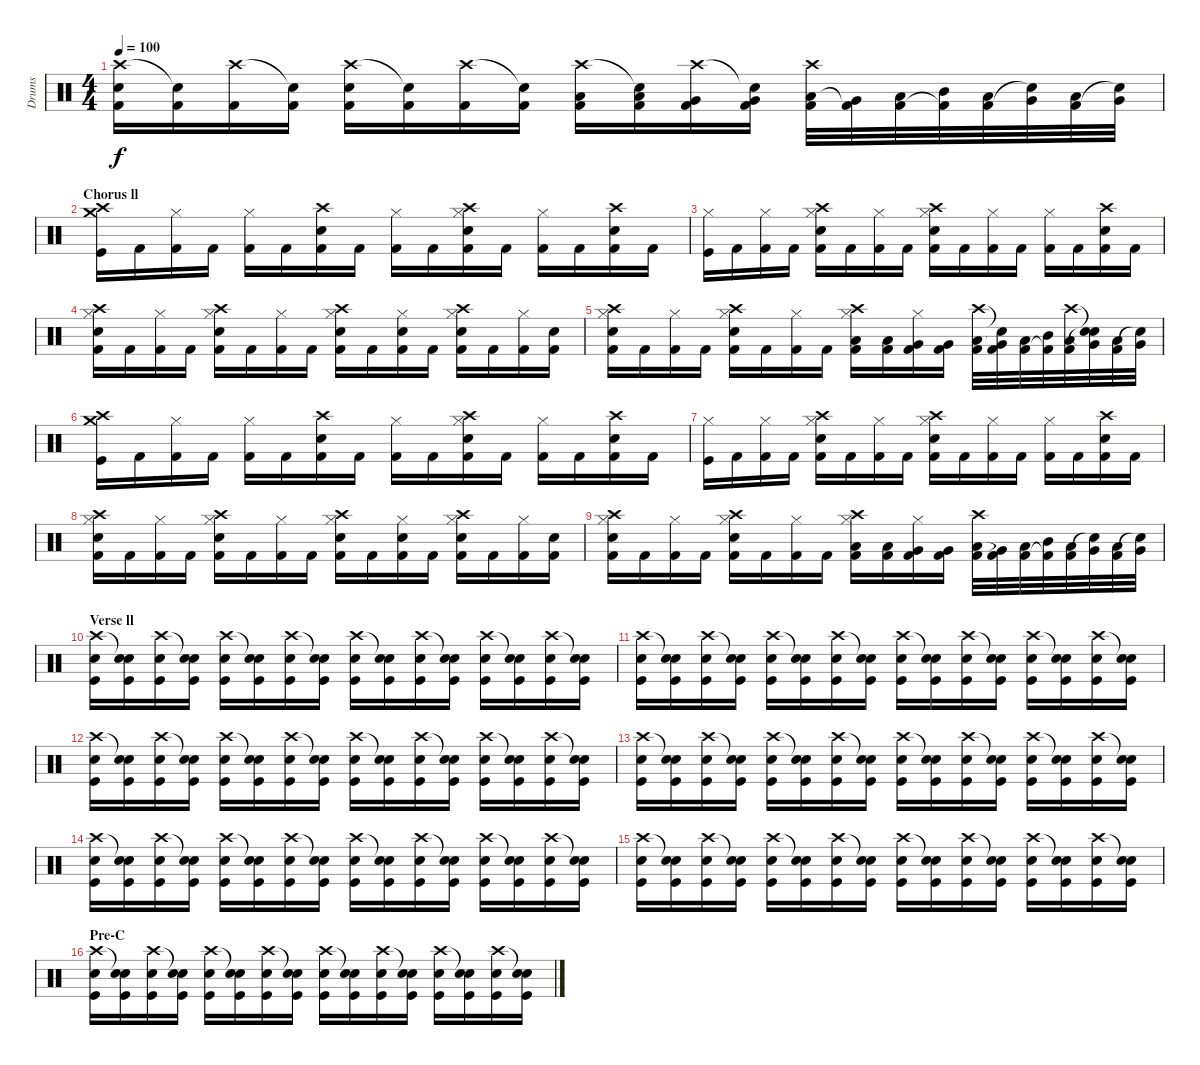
\track ("Drums" "Drums") {instrument percussion}
\staff {score}
\articulation defaults
\ts (4 4)
\tempo 100
\clef neutral
\ks c
("Crash high (hit)" "Electric Snare (hit)" "Kick (hit) 2").16{dy f} ("Snare (hit)"{t} "Kick (hit) 2").16 ("Crash high (hit)" "Kick (hit) 2").16 ("Snare (hit)"{t} "Kick (hit) 2").16 ("Crash high (hit)" "Electric Snare (hit)" "Kick (hit) 2").16 ("Snare (hit)"{t} "Kick (hit) 2").16 ("Crash high (hit)" "Kick (hit) 2").16 ("Snare (hit)"{t} "Kick (hit) 2").16 ("Crash high (hit)" "Low Floor Tom (hit)" "Kick (hit) 2").16 ("Snare (hit)"{t} "Low Floor Tom (hit)" "Kick (hit) 2").16 ("Crash high (hit)" "Very Low Tom (hit)" "Kick (hit) 2").16 ("Snare (hit)"{t} "Very Low Tom (hit)" "Kick (hit) 2").16 ("Crash high (hit)" "Low Floor Tom (hit)" "Kick (hit) 2").32 ("Very Low Tom (hit)" "Kick (hit) 2"{t}).32 ("Low Tom (hit)" "Kick (hit) 2").32 ("Mid Tom (hit)" "Kick (hit) 2"{t}).32 ("Low Tom (hit)" "Kick (hit) 2").32 ("Very Low Tom (hit)" "Snare (hit)"{t}).32 ("Low Floor Tom (hit)" "Kick (hit) 2").32 ("Very Low Tom (hit)" "Snare (hit)"{t}).32 |
\section ("" "Chorus ll")
("Crash medium (hit)" "Crash high (hit)" "Kick (hit)").16 "Kick (hit) 2".16 ("Hi-Hat (closed)" "Kick (hit) 2").16 "Kick (hit) 2".16 ("Hi-Hat (closed)" "Kick (hit) 2").16 "Kick (hit) 2".16 ("Crash high (hit)" "Electric Snare (hit)" "Kick (hit) 2").16 "Kick (hit) 2".16 ("Hi-Hat (closed)" "Kick (hit) 2").16 "Kick (hit) 2".16 ("Hi-Hat (closed)" "Crash high (hit)" "Electric Snare (hit)" "Kick (hit) 2").16 "Kick (hit) 2".16 ("Hi-Hat (closed)" "Kick (hit) 2").16 "Kick (hit) 2".16 ("Crash high (hit)" "Electric Snare (hit)" "Kick (hit) 2").16 "Kick (hit) 2".16 |
("Hi-Hat (closed)" "Kick (hit)").16 "Kick (hit) 2".16 ("Hi-Hat (closed)" "Kick (hit) 2").16 "Kick (hit) 2".16 ("Hi-Hat (closed)" "Crash high (hit)" "Electric Snare (hit)" "Kick (hit) 2").16 "Kick (hit) 2".16 ("Hi-Hat (closed)" "Kick (hit) 2").16 "Kick (hit) 2".16 ("Hi-Hat (closed)" "Crash high (hit)" "Electric Snare (hit)" "Kick (hit) 2").16 "Kick (hit) 2".16 ("Hi-Hat (closed)" "Kick (hit) 2").16 "Kick (hit) 2".16 ("Hi-Hat (closed)" "Kick (hit) 2").16 "Kick (hit) 2".16 ("Crash high (hit)" "Electric Snare (hit)" "Kick (hit) 2").16 "Kick (hit) 2".16 |
("Hi-Hat (closed)" "Crash high (hit)" "Electric Snare (hit)" "Kick (hit) 2").16 "Kick (hit) 2".16 ("Hi-Hat (closed)" "Kick (hit) 2").16 "Kick (hit) 2".16 ("Hi-Hat (closed)" "Crash high (hit)" "Electric Snare (hit)" "Kick (hit) 2").16 "Kick (hit) 2".16 ("Hi-Hat (closed)" "Kick (hit) 2").16 "Kick (hit) 2".16 ("Hi-Hat (closed)" "Crash high (hit)" "Electric Snare (hit)" "Kick (hit) 2").16 "Kick (hit) 2".16 ("Hi-Hat (closed)" "Electric Snare (hit)" "Kick (hit) 2").16 "Kick (hit) 2".16 ("Hi-Hat (closed)" "Crash high (hit)" "Electric Snare (hit)" "Kick (hit) 2").16 "Kick (hit) 2".16 ("Hi-Hat (closed)" "Kick (hit) 2").16 ("Electric Snare (hit)" "Kick (hit) 2").16 |
("Hi-Hat (closed)" "Crash high (hit)" "Electric Snare (hit)" "Kick (hit) 2").16 "Kick (hit) 2".16 ("Hi-Hat (closed)" "Kick (hit) 2").16 "Kick (hit) 2".16 ("Hi-Hat (closed)" "Crash high (hit)" "Electric Snare (hit)" "Kick (hit) 2").16 "Kick (hit) 2".16 ("Hi-Hat (closed)" "Kick (hit) 2").16 "Kick (hit) 2".16 ("Hi-Hat (closed)" "Crash high (hit)" "Low Floor Tom (hit)" "Kick (hit) 2").16 ("Low Floor Tom (hit)" "Kick (hit) 2").16 ("Hi-Hat (closed)" "Very Low Tom (hit)" "Kick (hit) 2").16 ("Very Low Tom (hit)" "Kick (hit) 2").16 ("Crash high (hit)" "Low Floor Tom (hit)" "Kick (hit) 2").32 ("Snare (hit)"{t} "Very Low Tom (hit)" "Kick (hit) 2"{t}).32 ("Low Tom (hit)" "Kick (hit) 2").32 ("Mid Tom (hit)" "Kick (hit) 2"{t}).32 ("Crash high (hit)" "Low Tom (hit)" "Kick (hit) 2").32 ("Snare (hit)"{t} "Very Low Tom (hit)" "Snare (hit)"{t}).32 ("Low Floor Tom (hit)" "Kick (hit) 2").32 ("Very Low Tom (hit)" "Snare (hit)"{t}).32 |
("Crash medium (hit)" "Crash high (hit)" "Kick (hit)").16 "Kick (hit) 2".16 ("Hi-Hat (closed)" "Kick (hit) 2").16 "Kick (hit) 2".16 ("Hi-Hat (closed)" "Kick (hit) 2").16 "Kick (hit) 2".16 ("Crash high (hit)" "Electric Snare (hit)" "Kick (hit) 2").16 "Kick (hit) 2".16 ("Hi-Hat (closed)" "Kick (hit) 2").16 "Kick (hit) 2".16 ("Hi-Hat (closed)" "Crash high (hit)" "Electric Snare (hit)" "Kick (hit) 2").16 "Kick (hit) 2".16 ("Hi-Hat (closed)" "Kick (hit) 2").16 "Kick (hit) 2".16 ("Crash high (hit)" "Electric Snare (hit)" "Kick (hit) 2").16 "Kick (hit) 2".16 |
("Hi-Hat (closed)" "Kick (hit)").16 "Kick (hit) 2".16 ("Hi-Hat (closed)" "Kick (hit) 2").16 "Kick (hit) 2".16 ("Hi-Hat (closed)" "Crash high (hit)" "Electric Snare (hit)" "Kick (hit) 2").16 "Kick (hit) 2".16 ("Hi-Hat (closed)" "Kick (hit) 2").16 "Kick (hit) 2".16 ("Hi-Hat (closed)" "Crash high (hit)" "Electric Snare (hit)" "Kick (hit) 2").16 "Kick (hit) 2".16 ("Hi-Hat (closed)" "Kick (hit) 2").16 "Kick (hit) 2".16 ("Hi-Hat (closed)" "Kick (hit) 2").16 "Kick (hit) 2".16 ("Crash high (hit)" "Electric Snare (hit)" "Kick (hit) 2").16 "Kick (hit) 2".16 |
("Hi-Hat (closed)" "Crash high (hit)" "Electric Snare (hit)" "Kick (hit) 2").16 "Kick (hit) 2".16 ("Hi-Hat (closed)" "Kick (hit) 2").16 "Kick (hit) 2".16 ("Hi-Hat (closed)" "Crash high (hit)" "Electric Snare (hit)" "Kick (hit) 2").16 "Kick (hit) 2".16 ("Hi-Hat (closed)" "Kick (hit) 2").16 "Kick (hit) 2".16 ("Hi-Hat (closed)" "Crash high (hit)" "Electric Snare (hit)" "Kick (hit) 2").16 "Kick (hit) 2".16 ("Hi-Hat (closed)" "Electric Snare (hit)" "Kick (hit) 2").16 "Kick (hit) 2".16 ("Hi-Hat (closed)" "Crash high (hit)" "Electric Snare (hit)" "Kick (hit) 2").16 "Kick (hit) 2".16 ("Hi-Hat (closed)" "Kick (hit) 2").16 ("Electric Snare (hit)" "Kick (hit) 2").16 |
("Hi-Hat (closed)" "Crash high (hit)" "Electric Snare (hit)" "Kick (hit) 2").16 "Kick (hit) 2".16 ("Hi-Hat (closed)" "Kick (hit) 2").16 "Kick (hit) 2".16 ("Hi-Hat (closed)" "Crash high (hit)" "Electric Snare (hit)" "Kick (hit) 2").16 "Kick (hit) 2".16 ("Hi-Hat (closed)" "Kick (hit) 2").16 "Kick (hit) 2".16 ("Hi-Hat (closed)" "Crash high (hit)" "Low Floor Tom (hit)" "Kick (hit) 2").16 ("Low Floor Tom (hit)" "Kick (hit) 2").16 ("Hi-Hat (closed)" "Very Low Tom (hit)" "Kick (hit) 2").16 ("Very Low Tom (hit)" "Kick (hit) 2").16 ("Crash high (hit)" "Low Floor Tom (hit)" "Kick (hit) 2").32 ("Very Low Tom (hit)" "Kick (hit) 2"{t}).32 ("Low Tom (hit)" "Kick (hit) 2").32 ("Mid Tom (hit)" "Kick (hit) 2"{t}).32 ("Low Tom (hit)" "Kick (hit) 2").32 ("Very Low Tom (hit)" "Snare (hit)"{t}).32 ("Low Floor Tom (hit)" "Kick (hit) 2").32 ("Very Low Tom (hit)" "Snare (hit)"{t}).32 |
\section ("" "Verse ll")
("Crash high (hit)" "Electric Snare (hit)" "Kick (hit)").16 ("Snare (hit)"{t} "Electric Snare (hit)" "Kick (hit)").16 ("Crash high (hit)" "Electric Snare (hit)" "Kick (hit)").16 ("Snare (hit)"{t} "Electric Snare (hit)" "Kick (hit)").16 ("Crash high (hit)" "Electric Snare (hit)" "Kick (hit)").16 ("Snare (hit)"{t} "Electric Snare (hit)" "Kick (hit)").16 ("Crash high (hit)" "Electric Snare (hit)" "Kick (hit)").16 ("Snare (hit)"{t} "Electric Snare (hit)" "Kick (hit)").16 ("Crash high (hit)" "Electric Snare (hit)" "Kick (hit)").16 ("Snare (hit)"{t} "Electric Snare (hit)" "Kick (hit)").16 ("Crash high (hit)" "Electric Snare (hit)" "Kick (hit)").16 ("Snare (hit)"{t} "Electric Snare (hit)" "Kick (hit)").16 ("Crash high (hit)" "Electric Snare (hit)" "Kick (hit)").16 ("Snare (hit)"{t} "Electric Snare (hit)" "Kick (hit)").16 ("Crash high (hit)" "Electric Snare (hit)" "Kick (hit)").16 ("Snare (hit)"{t} "Electric Snare (hit)" "Kick (hit)").16 |
("Crash high (hit)" "Electric Snare (hit)" "Kick (hit)").16 ("Snare (hit)"{t} "Electric Snare (hit)" "Kick (hit)").16 ("Crash high (hit)" "Electric Snare (hit)" "Kick (hit)").16 ("Snare (hit)"{t} "Electric Snare (hit)" "Kick (hit)").16 ("Crash high (hit)" "Electric Snare (hit)" "Kick (hit)").16 ("Snare (hit)"{t} "Electric Snare (hit)" "Kick (hit)").16 ("Crash high (hit)" "Electric Snare (hit)" "Kick (hit)").16 ("Snare (hit)"{t} "Electric Snare (hit)" "Kick (hit)").16 ("Crash high (hit)" "Electric Snare (hit)" "Kick (hit)").16 ("Snare (hit)"{t} "Electric Snare (hit)" "Kick (hit)").16 ("Crash high (hit)" "Electric Snare (hit)" "Kick (hit)").16 ("Snare (hit)"{t} "Electric Snare (hit)" "Kick (hit)").16 ("Crash high (hit)" "Electric Snare (hit)" "Kick (hit)").16 ("Snare (hit)"{t} "Electric Snare (hit)" "Kick (hit)").16 ("Crash high (hit)" "Electric Snare (hit)" "Kick (hit)").16 ("Snare (hit)"{t} "Electric Snare (hit)" "Kick (hit)").16 |
("Crash high (hit)" "Electric Snare (hit)" "Kick (hit)").16 ("Snare (hit)"{t} "Electric Snare (hit)" "Kick (hit)").16 ("Crash high (hit)" "Electric Snare (hit)" "Kick (hit)").16 ("Snare (hit)"{t} "Electric Snare (hit)" "Kick (hit)").16 ("Crash high (hit)" "Electric Snare (hit)" "Kick (hit)").16 ("Snare (hit)"{t} "Electric Snare (hit)" "Kick (hit)").16 ("Crash high (hit)" "Electric Snare (hit)" "Kick (hit)").16 ("Snare (hit)"{t} "Electric Snare (hit)" "Kick (hit)").16 ("Crash high (hit)" "Electric Snare (hit)" "Kick (hit)").16 ("Snare (hit)"{t} "Electric Snare (hit)" "Kick (hit)").16 ("Crash high (hit)" "Electric Snare (hit)" "Kick (hit)").16 ("Snare (hit)"{t} "Electric Snare (hit)" "Kick (hit)").16 ("Crash high (hit)" "Electric Snare (hit)" "Kick (hit)").16 ("Snare (hit)"{t} "Electric Snare (hit)" "Kick (hit)").16 ("Crash high (hit)" "Electric Snare (hit)" "Kick (hit)").16 ("Snare (hit)"{t} "Electric Snare (hit)" "Kick (hit)").16 |
("Crash high (hit)" "Electric Snare (hit)" "Kick (hit)").16 ("Snare (hit)"{t} "Electric Snare (hit)" "Kick (hit)").16 ("Crash high (hit)" "Electric Snare (hit)" "Kick (hit)").16 ("Snare (hit)"{t} "Electric Snare (hit)" "Kick (hit)").16 ("Crash high (hit)" "Electric Snare (hit)" "Kick (hit)").16 ("Snare (hit)"{t} "Electric Snare (hit)" "Kick (hit)").16 ("Crash high (hit)" "Electric Snare (hit)" "Kick (hit)").16 ("Snare (hit)"{t} "Electric Snare (hit)" "Kick (hit)").16 ("Crash high (hit)" "Electric Snare (hit)" "Kick (hit)").16 ("Snare (hit)"{t} "Electric Snare (hit)" "Kick (hit)").16 ("Crash high (hit)" "Electric Snare (hit)" "Kick (hit)").16 ("Snare (hit)"{t} "Electric Snare (hit)" "Kick (hit)").16 ("Crash high (hit)" "Electric Snare (hit)" "Kick (hit)").16 ("Snare (hit)"{t} "Electric Snare (hit)" "Kick (hit)").16 ("Crash high (hit)" "Electric Snare (hit)" "Kick (hit)").16 ("Snare (hit)"{t} "Electric Snare (hit)" "Kick (hit)").16 |
("Crash high (hit)" "Electric Snare (hit)" "Kick (hit)").16 ("Snare (hit)"{t} "Electric Snare (hit)" "Kick (hit)").16 ("Crash high (hit)" "Electric Snare (hit)" "Kick (hit)").16 ("Snare (hit)"{t} "Electric Snare (hit)" "Kick (hit)").16 ("Crash high (hit)" "Electric Snare (hit)" "Kick (hit)").16 ("Snare (hit)"{t} "Electric Snare (hit)" "Kick (hit)").16 ("Crash high (hit)" "Electric Snare (hit)" "Kick (hit)").16 ("Snare (hit)"{t} "Electric Snare (hit)" "Kick (hit)").16 ("Crash high (hit)" "Electric Snare (hit)" "Kick (hit)").16 ("Snare (hit)"{t} "Electric Snare (hit)" "Kick (hit)").16 ("Crash high (hit)" "Electric Snare (hit)" "Kick (hit)").16 ("Snare (hit)"{t} "Electric Snare (hit)" "Kick (hit)").16 ("Crash high (hit)" "Electric Snare (hit)" "Kick (hit)").16 ("Snare (hit)"{t} "Electric Snare (hit)" "Kick (hit)").16 ("Crash high (hit)" "Electric Snare (hit)" "Kick (hit)").16 ("Snare (hit)"{t} "Electric Snare (hit)" "Kick (hit)").16 |
("Crash high (hit)" "Electric Snare (hit)" "Kick (hit)").16 ("Snare (hit)"{t} "Electric Snare (hit)" "Kick (hit)").16 ("Crash high (hit)" "Electric Snare (hit)" "Kick (hit)").16 ("Snare (hit)"{t} "Electric Snare (hit)" "Kick (hit)").16 ("Crash high (hit)" "Electric Snare (hit)" "Kick (hit)").16 ("Snare (hit)"{t} "Electric Snare (hit)" "Kick (hit)").16 ("Crash high (hit)" "Electric Snare (hit)" "Kick (hit)").16 ("Snare (hit)"{t} "Electric Snare (hit)" "Kick (hit)").16 ("Crash high (hit)" "Electric Snare (hit)" "Kick (hit)").16 ("Snare (hit)"{t} "Electric Snare (hit)" "Kick (hit)").16 ("Crash high (hit)" "Electric Snare (hit)" "Kick (hit)").16 ("Snare (hit)"{t} "Electric Snare (hit)" "Kick (hit)").16 ("Crash high (hit)" "Electric Snare (hit)" "Kick (hit)").16 ("Snare (hit)"{t} "Electric Snare (hit)" "Kick (hit)").16 ("Crash high (hit)" "Electric Snare (hit)" "Kick (hit)").16 ("Snare (hit)"{t} "Electric Snare (hit)" "Kick (hit)").16 |
\section ("" "Pre-C")
("Crash high (hit)" "Electric Snare (hit)" "Kick (hit)").16 ("Snare (hit)"{t} "Electric Snare (hit)" "Kick (hit)").16 ("Crash high (hit)" "Electric Snare (hit)" "Kick (hit)").16 ("Snare (hit)"{t} "Electric Snare (hit)" "Kick (hit)").16 ("Crash high (hit)" "Electric Snare (hit)" "Kick (hit)").16 ("Snare (hit)"{t} "Electric Snare (hit)" "Kick (hit)").16 ("Crash high (hit)" "Electric Snare (hit)" "Kick (hit)").16 ("Snare (hit)"{t} "Electric Snare (hit)" "Kick (hit)").16 ("Crash high (hit)" "Electric Snare (hit)" "Kick (hit)").16 ("Snare (hit)"{t} "Electric Snare (hit)" "Kick (hit)").16 ("Crash high (hit)" "Electric Snare (hit)" "Kick (hit)").16 ("Snare (hit)"{t} "Electric Snare (hit)" "Kick (hit)").16 ("Crash high (hit)" "Electric Snare (hit)" "Kick (hit)").16 ("Snare (hit)"{t} "Electric Snare (hit)" "Kick (hit)").16 ("Crash high (hit)" "Electric Snare (hit)" "Kick (hit)").16 ("Snare (hit)"{t} "Electric Snare (hit)" "Kick (hit)").16
